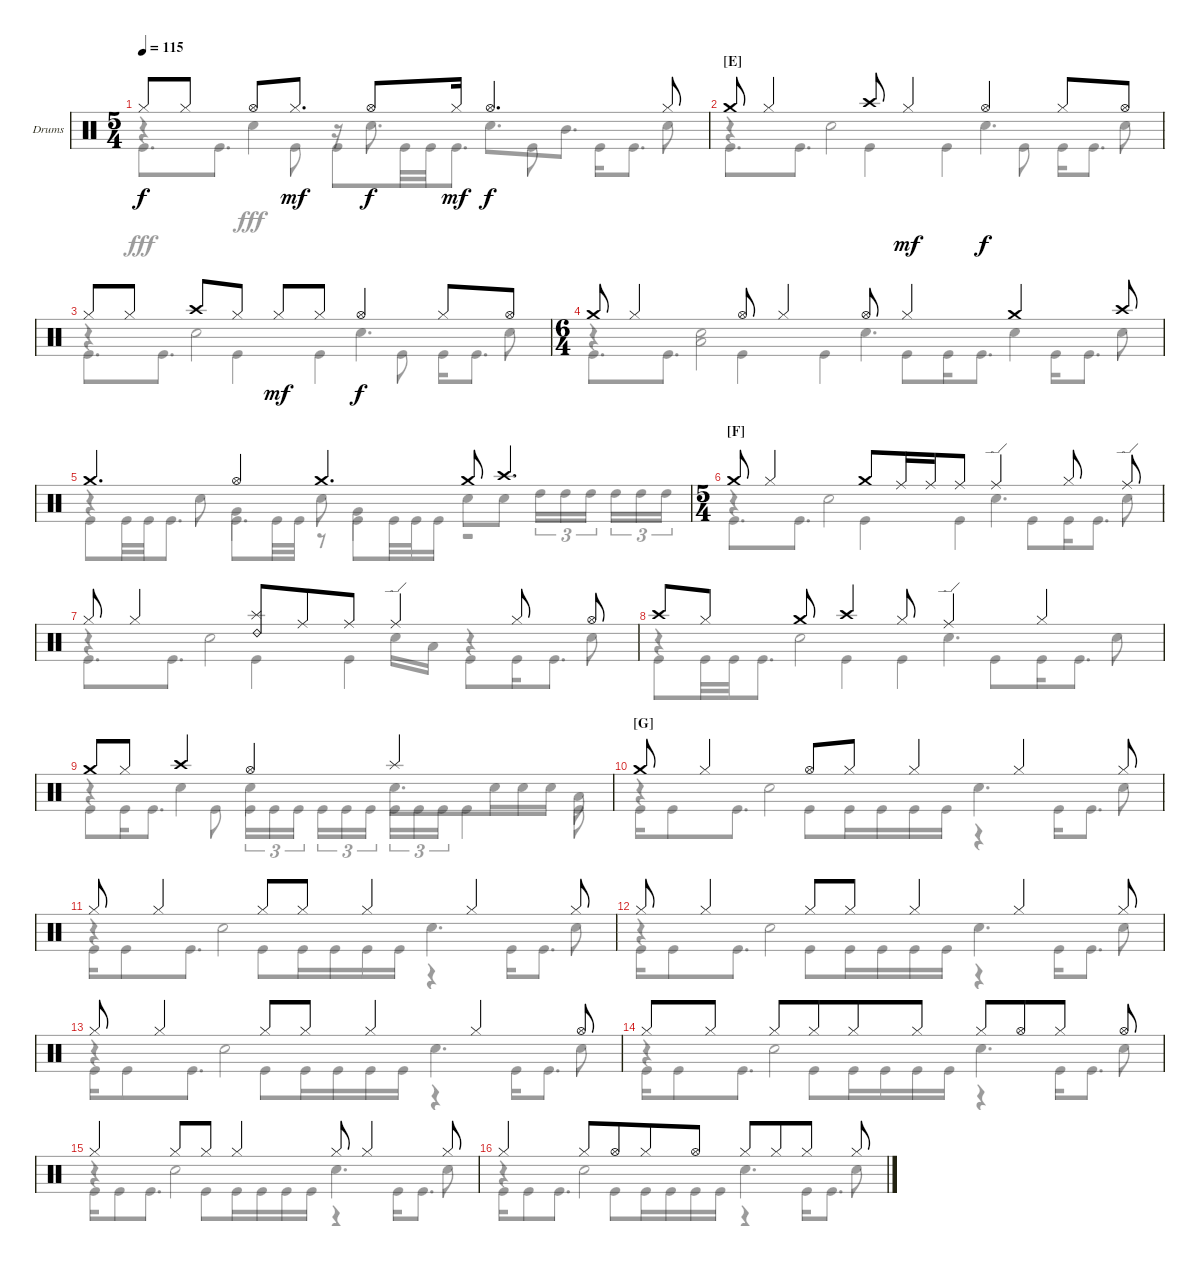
\defaultSystemsLayout 4
\bracketExtendMode groupsimilarinstruments
\firstSystemTrackNameOrientation horizontal
\otherSystemsTrackNameOrientation horizontal
\track ("Drumkit" "Drums") {instrument percussion}
\staff {score}
\articulation defaults
\voice
\ts (5 4)
\tempo 115
\clef neutral
\ks c "Hi-Hat (closed)".8{dy f} "Hi-Hat (closed)".8 "Hi-Hat (open)".8 "Hi-Hat (closed)".8{d dy mf} "Hi-Hat (open)".8{dy f} "Hi-Hat (closed)".16{dy mf} "Hi-Hat (open)".4{d dy f} "Hi-Hat (closed)".8
|
\section ("E" "")
"Crash medium (hit)".8 "Hi-Hat (closed)".4 "Crash high (hit)".8 "Hi-Hat (closed)".4{dy mf} "Hi-Hat (open)".4{dy f} "Hi-Hat (closed)".8 "Hi-Hat (open)".8 |
"Hi-Hat (closed)".8 "Hi-Hat (closed)".8 "Crash high (hit)".8 "Hi-Hat (closed)".8 "Hi-Hat (closed)".8{dy mf} "Hi-Hat (closed)".8 "Hi-Hat (open)".4{dy f} "Hi-Hat (closed)".8 "Hi-Hat (open)".8 |
\ts (6 4)
\beaming (8 2 4 3 2 1)
"Crash medium (hit)".8 "Hi-Hat (closed)".4 "Hi-Hat (open)".8 "Hi-Hat (closed)".4 "Hi-Hat (open)".8 "Hi-Hat (closed)".4 "Crash medium (hit)".4 "Crash high (hit)".8 |
\beaming (8 2 3 3 4)
"Crash medium (hit)".4{d} "Hi-Hat (open)".4 "Crash medium (hit)".4{d} "Crash medium (hit)".8 "Crash high (hit)".4{d} |
\ts (5 4)
\beaming (8 2 4 3 1)
\section ("F" "")
"Crash medium (hit)".8 "Hi-Hat (closed)".4 "Crash medium (hit)".8 "Ride (middle)".16 "Ride (middle)".16 "Ride (middle)".8 "Ride (edge)".4 "Hi-Hat (closed)".8 "Ride (edge)".8 |
"Hi-Hat (closed)".8 "Hi-Hat (closed)".4 ("Ride (bell) 2" "Splash (hit)").8 "Ride (middle)".8 "Ride (middle)".8 "Ride (edge)".4 "Hi-Hat (closed)".8 "Hi-Hat (open)".8 |
"Crash high (hit)".8 "Hi-Hat (closed)".8 "Crash medium (hit)".8 "Crash high (hit)".4 "Hi-Hat (closed)".8 "Ride (edge)".4 "Hi-Hat (closed)".4 |
"Crash medium (hit)".8 "Hi-Hat (closed)".8 "Crash high (hit)".4 "Hi-Hat (open)".4 "Splash (hit)".2 |
\section ("G" "")
"Crash medium (hit)".8 "Hi-Hat (closed)".4 "Hi-Hat (open)".8 "Hi-Hat (closed)".8 "Hi-Hat (closed)".4 "Hi-Hat (closed)".4 "Hi-Hat (closed)".8 |
"Hi-Hat (closed)".8 "Hi-Hat (closed)".4 "Hi-Hat (closed)".8 "Hi-Hat (closed)".8 "Hi-Hat (closed)".4 "Hi-Hat (closed)".4 "Hi-Hat (closed)".8 |
"Hi-Hat (closed)".8 "Hi-Hat (closed)".4 "Hi-Hat (closed)".8 "Hi-Hat (closed)".8 "Hi-Hat (closed)".4 "Hi-Hat (closed)".4 "Hi-Hat (closed)".8 |
"Hi-Hat (closed)".8 "Hi-Hat (closed)".4 "Hi-Hat (closed)".8 "Hi-Hat (closed)".8 "Hi-Hat (closed)".4 "Hi-Hat (closed)".4 "Hi-Hat (open)".8 |
"Hi-Hat (closed)".8 "Hi-Hat (closed)".8 "Hi-Hat (closed)".8 "Hi-Hat (closed)".8 "Hi-Hat (closed)".8 "Hi-Hat (closed)".8 "Hi-Hat (closed)".8 "Hi-Hat (open)".8 "Hi-Hat (closed)".8 "Hi-Hat (open)".8 |
"Hi-Hat (closed)".4 "Hi-Hat (closed)".8 "Hi-Hat (closed)".8 "Hi-Hat (closed)".4 "Hi-Hat (closed)".8 "Hi-Hat (closed)".4 "Hi-Hat (closed)".8 |
"Hi-Hat (closed)".4 "Hi-Hat (closed)".8 "Hi-Hat (open)".8 "Hi-Hat (closed)".8 "Hi-Hat (open)".8 "Hi-Hat (closed)".8 "Hi-Hat (closed)".8 "Hi-Hat (closed)".8 "Hi-Hat (closed)".8
\voice
\clef neutral
\ottava regular
\simile none
\ks c
r.4{dy fff} "Snare (hit) 2".4 r.16 "Snare (hit) 2".8{d} "Snare (hit) 2".8{d} "Mid Tom (hit)".8{d} "Snare (hit) 2".8 |
r.4 "Snare (hit) 2".2 "Snare (hit) 2".4{d} "Snare (hit) 2".8 |
r.4 "Snare (hit) 2".2 "Snare (hit) 2".4{d} "Snare (hit) 2".8 |
r.4 ("Snare (hit) 2" "Low Tom (hit)").2 "Snare (hit) 2".4{d} "Snare (hit) 2".4 "Snare (hit) 2".8 |
r.4 "Snare (hit) 2".8 "Very Low Tom (hit)".4 "Snare (hit) 2".8 "Very Low Tom (hit)".4 "Snare (hit) 2".8 "Snare (hit) 2".8 "High Tom (hit)".16{tu (3 2)} "High Tom (hit)".16{tu (3 2)} "High Tom (hit)".16{tu (3 2)} "High Tom (hit)".16{tu (3 2)} "High Tom (hit)".16{tu (3 2)} "High Tom (hit)".16{tu (3 2)} |
r.4 "Snare (hit) 2".2 "Snare (hit) 2".4{d} "Snare (hit) 2".8 |
r.4 "Snare (hit) 2".2 "Snare (hit) 2".16 "Low Tom (hit)".16 r.4 "Snare (hit) 2".8 |
r.4 "Snare (hit) 2".2 "Snare (hit) 2".4{d} "Snare (hit) 2".8 |
r.4 "Snare (hit) 2".4 "Snare (hit) 2".4 "Snare (hit) 2".8{d} "Snare (hit) 2".16 "Snare (hit) 2".16 "Snare (hit) 2".16 "Low Tom (hit)".8 |
r.4 "Snare (hit) 2".2 "Snare (hit) 2".4{d} "Snare (hit) 2".8 |
r.4 "Snare (hit) 2".2 "Snare (hit) 2".4{d} "Snare (hit) 2".8 |
r.4 "Snare (hit) 2".2 "Snare (hit) 2".4{d} "Snare (hit) 2".8 |
r.4 "Snare (hit) 2".2 "Snare (hit) 2".4{d} "Snare (hit) 2".8 |
r.4 "Snare (hit) 2".2 "Snare (hit) 2".4{d} "Snare (hit) 2".8 |
r.4 "Snare (hit) 2".2 "Snare (hit) 2".4{d} "Snare (hit) 2".8 |
r.4 "Snare (hit) 2".2 "Snare (hit) 2".4{d} "Snare (hit) 2".8
\voice
\clef neutral
\ottava regular
\simile none
\ks c "Kick (hit)".8{d dy fff} "Kick (hit)".8{d} "Kick (hit)".8 "Kick (hit)".8 "Kick (hit)".32 "Kick (hit)".32 "Kick (hit)".8{d} "Kick (hit)".8 "Kick (hit)".16 "Kick (hit)".8{d}
|
"Kick (hit)".8{d} "Kick (hit)".8{d} "Kick (hit)".4 "Kick (hit)".4 "Kick (hit)".8 "Kick (hit)".16 "Kick (hit)".8{d} |
"Kick (hit)".8{d} "Kick (hit)".8{d} "Kick (hit)".4 "Kick (hit)".4 "Kick (hit)".8 "Kick (hit)".16 "Kick (hit)".8{d} |
"Kick (hit)".8{d} "Kick (hit)".8{d} "Kick (hit)".4 "Kick (hit)".4 "Kick (hit)".8 "Kick (hit)".16 "Kick (hit)".8{d} "Kick (hit)".16 "Kick (hit)".8{d} |
"Kick (hit)".8 "Kick (hit)".32 "Kick (hit)".32 "Kick (hit)".8{d} "Kick (hit)".8{d} "Kick (hit)".32 "Kick (hit)".32 r.8 "Kick (hit)".8 "Kick (hit)".32 "Kick (hit)".32 "Kick (hit)".16 r.2 |
"Kick (hit)".8{d} "Kick (hit)".8{d} "Kick (hit)".4 "Kick (hit)".4 "Kick (hit)".8 "Kick (hit)".16 "Kick (hit)".8{d} |
"Kick (hit)".8{d} "Kick (hit)".8{d} "Kick (hit)".4 "Kick (hit)".4 "Kick (hit)".8 "Kick (hit)".16 "Kick (hit)".8{d} |
"Kick (hit)".8 "Kick (hit)".32 "Kick (hit)".32 "Kick (hit)".8{d} "Kick (hit)".4 "Kick (hit)".4 "Kick (hit)".8 "Kick (hit)".16 "Kick (hit)".8{d} |
"Kick (hit)".8 "Kick (hit)".16 "Kick (hit)".8{d} "Kick (hit)".8 "Kick (hit)".16{tu (3 2)} "Kick (hit)".16{tu (3 2)} "Kick (hit)".16{tu (3 2)} "Kick (hit)".16{tu (3 2)} "Kick (hit)".16{tu (3 2)} "Kick (hit)".16{tu (3 2)} "Kick (hit)".16{tu (3 2)} "Kick (hit)".16{tu (3 2)} "Kick (hit)".16{tu (3 2)} "Kick (hit)".4 "Kick (hit)".8 |
"Kick (hit)".16 "Kick (hit)".8 "Kick (hit)".8{d} "Kick (hit)".8 "Kick (hit)".16 "Kick (hit)".16 "Kick (hit)".16 "Kick (hit)".16 r.4 "Kick (hit)".16 "Kick (hit)".8{d} |
"Kick (hit)".16 "Kick (hit)".8 "Kick (hit)".8{d} "Kick (hit)".8 "Kick (hit)".16 "Kick (hit)".16 "Kick (hit)".16 "Kick (hit)".16 r.4 "Kick (hit)".16 "Kick (hit)".8{d} |
"Kick (hit)".16 "Kick (hit)".8 "Kick (hit)".8{d} "Kick (hit)".8 "Kick (hit)".16 "Kick (hit)".16 "Kick (hit)".16 "Kick (hit)".16 r.4 "Kick (hit)".16 "Kick (hit)".8{d} |
"Kick (hit)".16 "Kick (hit)".8 "Kick (hit)".8{d} "Kick (hit)".8 "Kick (hit)".16 "Kick (hit)".16 "Kick (hit)".16 "Kick (hit)".16 r.4 "Kick (hit)".16 "Kick (hit)".8{d} |
"Kick (hit)".16 "Kick (hit)".8 "Kick (hit)".8{d} "Kick (hit)".8 "Kick (hit)".16 "Kick (hit)".16 "Kick (hit)".16 "Kick (hit)".16 r.4 "Kick (hit)".16 "Kick (hit)".8{d} |
"Kick (hit)".16 "Kick (hit)".8 "Kick (hit)".8{d} "Kick (hit)".8 "Kick (hit)".16 "Kick (hit)".16 "Kick (hit)".16 "Kick (hit)".16 r.4 "Kick (hit)".16 "Kick (hit)".8{d} |
"Kick (hit)".16 "Kick (hit)".8 "Kick (hit)".8{d} "Kick (hit)".8 "Kick (hit)".16 "Kick (hit)".16 "Kick (hit)".16 "Kick (hit)".16 r.4 "Kick (hit)".16 "Kick (hit)".8{d}
